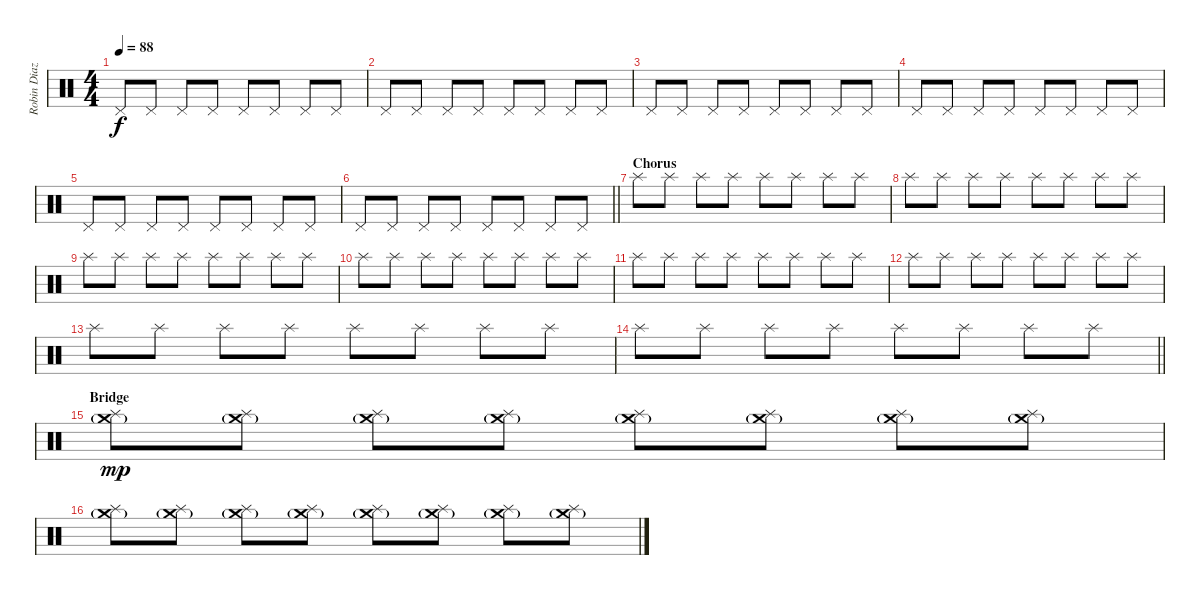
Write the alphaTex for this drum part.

\track ("Robin Diaz (Drums)" "Robin Diaz") {instrument percussion}
\staff {score}
\articulation defaults
\ts (4 4)
\tempo 88
\clef neutral
\ks c "Pedal Hi-Hat (hit)".8{dy f} "Pedal Hi-Hat (hit)".8 "Pedal Hi-Hat (hit)".8 "Pedal Hi-Hat (hit)".8 "Pedal Hi-Hat (hit)".8 "Pedal Hi-Hat (hit)".8 "Pedal Hi-Hat (hit)".8 "Pedal Hi-Hat (hit)".8
|
"Pedal Hi-Hat (hit)".8 "Pedal Hi-Hat (hit)".8 "Pedal Hi-Hat (hit)".8 "Pedal Hi-Hat (hit)".8 "Pedal Hi-Hat (hit)".8 "Pedal Hi-Hat (hit)".8 "Pedal Hi-Hat (hit)".8 "Pedal Hi-Hat (hit)".8 |
"Pedal Hi-Hat (hit)".8 "Pedal Hi-Hat (hit)".8 "Pedal Hi-Hat (hit)".8 "Pedal Hi-Hat (hit)".8 "Pedal Hi-Hat (hit)".8 "Pedal Hi-Hat (hit)".8 "Pedal Hi-Hat (hit)".8 "Pedal Hi-Hat (hit)".8 |
"Pedal Hi-Hat (hit)".8 "Pedal Hi-Hat (hit)".8 "Pedal Hi-Hat (hit)".8 "Pedal Hi-Hat (hit)".8 "Pedal Hi-Hat (hit)".8 "Pedal Hi-Hat (hit)".8 "Pedal Hi-Hat (hit)".8 "Pedal Hi-Hat (hit)".8 |
"Pedal Hi-Hat (hit)".8 "Pedal Hi-Hat (hit)".8 "Pedal Hi-Hat (hit)".8 "Pedal Hi-Hat (hit)".8 "Pedal Hi-Hat (hit)".8 "Pedal Hi-Hat (hit)".8 "Pedal Hi-Hat (hit)".8 "Pedal Hi-Hat (hit)".8 |
\barLineRight lightlight "Pedal Hi-Hat (hit)".8 "Pedal Hi-Hat (hit)".8 "Pedal Hi-Hat (hit)".8 "Pedal Hi-Hat (hit)".8 "Pedal Hi-Hat (hit)".8 "Pedal Hi-Hat (hit)".8 "Pedal Hi-Hat (hit)".8 "Pedal Hi-Hat (hit)".8
|
\section ("" "Chorus")
"Splash (hit)".8 "Splash (hit)".8 "Splash (hit)".8 "Splash (hit)".8 "Splash (hit)".8 "Splash (hit)".8 "Splash (hit)".8 "Splash (hit)".8 |
"Splash (hit)".8 "Splash (hit)".8 "Splash (hit)".8 "Splash (hit)".8 "Splash (hit)".8 "Splash (hit)".8 "Splash (hit)".8 "Splash (hit)".8 |
"Splash (hit)".8 "Splash (hit)".8 "Splash (hit)".8 "Splash (hit)".8 "Splash (hit)".8 "Splash (hit)".8 "Splash (hit)".8 "Splash (hit)".8 |
"Splash (hit)".8 "Splash (hit)".8 "Splash (hit)".8 "Splash (hit)".8 "Splash (hit)".8 "Splash (hit)".8 "Splash (hit)".8 "Splash (hit)".8 |
"Splash (hit)".8 "Splash (hit)".8 "Splash (hit)".8 "Splash (hit)".8 "Splash (hit)".8 "Splash (hit)".8 "Splash (hit)".8 "Splash (hit)".8 |
"Splash (hit)".8 "Splash (hit)".8 "Splash (hit)".8 "Splash (hit)".8 "Splash (hit)".8 "Splash (hit)".8 "Splash (hit)".8 "Splash (hit)".8 |
"Splash (hit)".8 "Splash (hit)".8 "Splash (hit)".8 "Splash (hit)".8 "Splash (hit)".8 "Splash (hit)".8 "Splash (hit)".8 "Splash (hit)".8 |
\barLineRight lightlight "Splash (hit)".8 "Splash (hit)".8 "Splash (hit)".8 "Splash (hit)".8 "Splash (hit)".8 "Splash (hit)".8 "Splash (hit)".8 "Splash (hit)".8
|
\section ("" "Bridge")
("Splash (hit)" "Crash medium (hit)"{g}).8{dy mp} ("Splash (hit)" "Crash medium (hit)"{g}).8 ("Splash (hit)" "Crash medium (hit)"{g}).8 ("Splash (hit)" "Crash medium (hit)"{g}).8 ("Splash (hit)" "Crash medium (hit)"{g}).8 ("Splash (hit)" "Crash medium (hit)"{g}).8 ("Splash (hit)" "Crash medium (hit)"{g}).8 ("Splash (hit)" "Crash medium (hit)"{g}).8 |
("Splash (hit)" "Crash medium (hit)"{g}).8 ("Splash (hit)" "Crash medium (hit)"{g}).8 ("Splash (hit)" "Crash medium (hit)"{g}).8 ("Splash (hit)" "Crash medium (hit)"{g}).8 ("Splash (hit)" "Crash medium (hit)"{g}).8 ("Splash (hit)" "Crash medium (hit)"{g}).8 ("Splash (hit)" "Crash medium (hit)"{g}).8 ("Splash (hit)" "Crash medium (hit)"{g}).8
